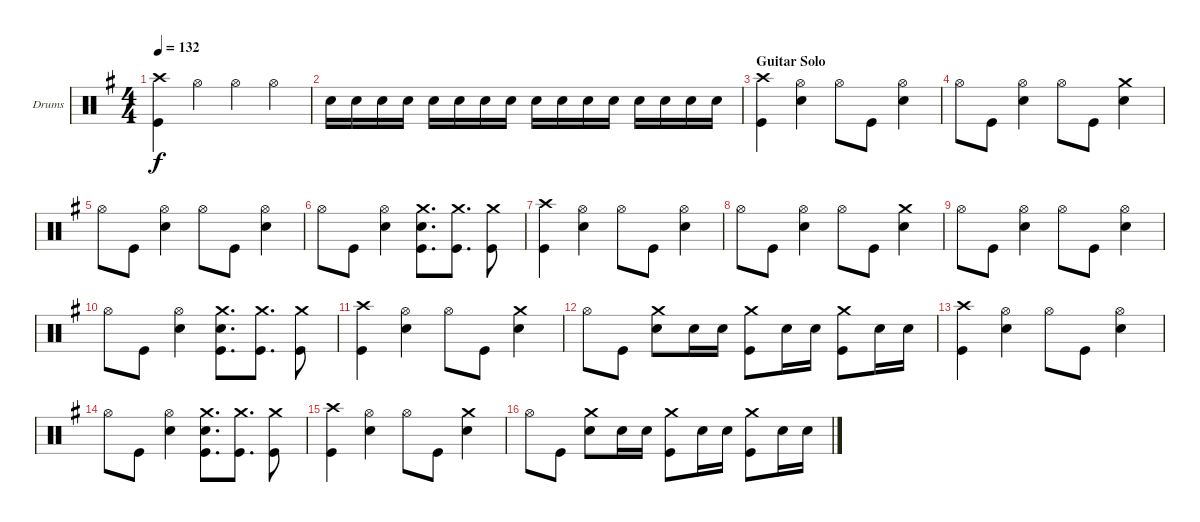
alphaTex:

\bracketExtendMode groupsimilarinstruments
\firstSystemTrackNameOrientation horizontal
\otherSystemsTrackNameOrientation horizontal
\track ("Drumkit" "Drums") {instrument percussion}
\staff {score}
\articulation defaults
\ts (4 4)
\tempo 132
\clef neutral
\ks g
("Crash high (hit)" "Kick (hit)").4{dy f} "Hi-Hat (open)".4 "Hi-Hat (open)".4 "Hi-Hat (open)".4 |
"Snare (hit) 2".16 "Snare (hit) 2".16 "Snare (hit) 2".16 "Snare (hit) 2".16 "Snare (hit) 2".16 "Snare (hit) 2".16 "Snare (hit) 2".16 "Snare (hit) 2".16 "Snare (hit) 2".16 "Snare (hit) 2".16 "Snare (hit) 2".16 "Snare (hit) 2".16 "Snare (hit) 2".16 "Snare (hit) 2".16 "Snare (hit) 2".16 "Snare (hit) 2".16 |
\section ("" "Guitar Solo")
("Crash high (hit)" "Kick (hit)").4 ("Hi-Hat (open)" "Snare (hit) 2").4 "Hi-Hat (open)".8 "Kick (hit)".8 ("Hi-Hat (open)" "Snare (hit) 2").4 |
"Hi-Hat (open)".8 "Kick (hit)".8 ("Hi-Hat (open)" "Snare (hit) 2").4 "Hi-Hat (open)".8 "Kick (hit)".8 ("Crash medium (hit)" "Snare (hit) 2").4 |
"Hi-Hat (open)".8 "Kick (hit)".8 ("Hi-Hat (open)" "Snare (hit) 2").4 "Hi-Hat (open)".8 "Kick (hit)".8 ("Hi-Hat (open)" "Snare (hit) 2").4 |
"Hi-Hat (open)".8 "Kick (hit)".8 ("Hi-Hat (open)" "Snare (hit) 2").4 ("Crash medium (hit)" "Snare (hit) 2" "Kick (hit)").8{d} ("Crash medium (hit)" "Kick (hit)").8{d} ("Crash medium (hit)" "Kick (hit)").8 |
("Crash high (hit)" "Kick (hit)").4 ("Hi-Hat (open)" "Snare (hit) 2").4 "Hi-Hat (open)".8 "Kick (hit)".8 ("Hi-Hat (open)" "Snare (hit) 2").4 |
"Hi-Hat (open)".8 "Kick (hit)".8 ("Hi-Hat (open)" "Snare (hit) 2").4 "Hi-Hat (open)".8 "Kick (hit)".8 ("Crash medium (hit)" "Snare (hit) 2").4 |
"Hi-Hat (open)".8 "Kick (hit)".8 ("Hi-Hat (open)" "Snare (hit) 2").4 "Hi-Hat (open)".8 "Kick (hit)".8 ("Hi-Hat (open)" "Snare (hit) 2").4 |
"Hi-Hat (open)".8 "Kick (hit)".8 ("Hi-Hat (open)" "Snare (hit) 2").4 ("Crash medium (hit)" "Snare (hit) 2" "Kick (hit)").8{d} ("Crash medium (hit)" "Kick (hit)").8{d} ("Crash medium (hit)" "Kick (hit)").8 |
("Crash high (hit)" "Kick (hit)").4 ("Hi-Hat (open)" "Snare (hit) 2").4 "Hi-Hat (open)".8 "Kick (hit)".8 ("Crash medium (hit)" "Snare (hit) 2").4 |
"Hi-Hat (open)".8 "Kick (hit)".8 ("Crash medium (hit)" "Snare (hit) 2").8 "Snare (hit) 2".16 "Snare (hit) 2".16 ("Crash medium (hit)" "Kick (hit)").8 "Snare (hit) 2".16 "Snare (hit) 2".16 ("Crash medium (hit)" "Kick (hit)").8 "Snare (hit) 2".16 "Snare (hit) 2".16 |
("Crash high (hit)" "Kick (hit)").4 ("Hi-Hat (open)" "Snare (hit) 2").4 "Hi-Hat (open)".8 "Kick (hit)".8 ("Hi-Hat (open)" "Snare (hit) 2").4 |
"Hi-Hat (open)".8 "Kick (hit)".8 ("Hi-Hat (open)" "Snare (hit) 2").4 ("Crash medium (hit)" "Snare (hit) 2" "Kick (hit)").8{d} ("Crash medium (hit)" "Kick (hit)").8{d} ("Crash medium (hit)" "Kick (hit)").8 |
("Crash high (hit)" "Kick (hit)").4 ("Hi-Hat (open)" "Snare (hit) 2").4 "Hi-Hat (open)".8 "Kick (hit)".8 ("Crash medium (hit)" "Snare (hit) 2").4 |
"Hi-Hat (open)".8 "Kick (hit)".8 ("Crash medium (hit)" "Snare (hit) 2").8 "Snare (hit) 2".16 "Snare (hit) 2".16 ("Crash medium (hit)" "Kick (hit)").8 "Snare (hit) 2".16 "Snare (hit) 2".16 ("Crash medium (hit)" "Kick (hit)").8 "Snare (hit) 2".16 "Snare (hit) 2".16
